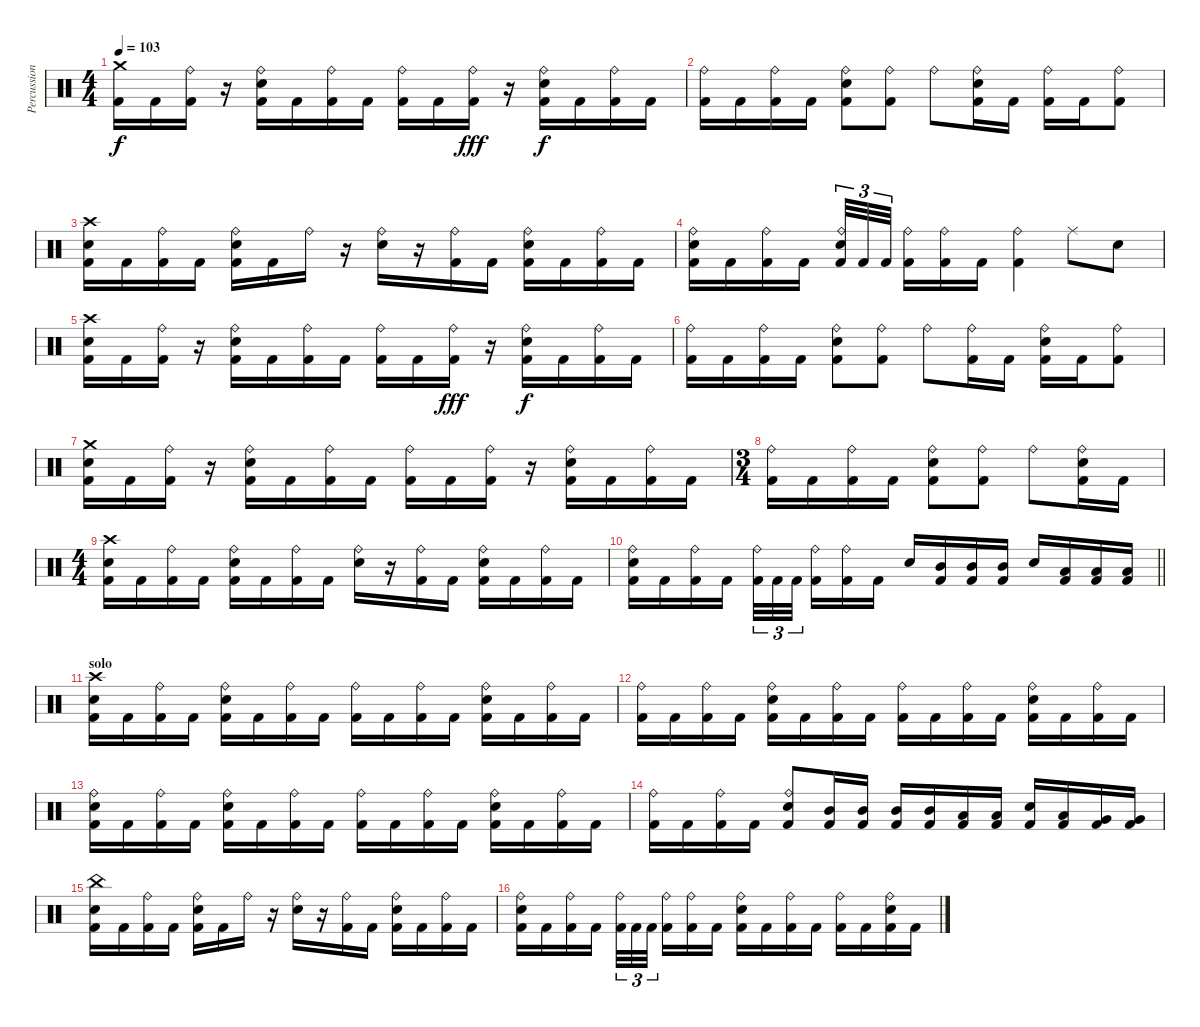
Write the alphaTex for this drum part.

\track ("Percussion" "Percussion") {instrument percussion}
\staff {score}
\articulation defaults
\ts (4 4)
\tempo 103
\clef neutral
\ks c
("Crash medium (hit)" "Kick (hit) 2").16{dy f} "Kick (hit) 2".16 ("Ride (bell)" "Kick (hit) 2").16 r.16 ("Ride (bell)" "Electric Snare (hit)" "Kick (hit) 2").16 "Kick (hit) 2".16 ("Ride (bell)" "Kick (hit) 2").16 "Kick (hit) 2".16 ("Ride (bell)" "Kick (hit) 2").16 "Kick (hit) 2".16 ("Ride (bell)" "Kick (hit) 2").16{dy fff} r.16 ("Ride (bell)" "Electric Snare (hit)" "Kick (hit) 2").16{dy f} "Kick (hit) 2".16 ("Ride (bell)" "Kick (hit) 2").16 "Kick (hit) 2".16 |
("Ride (bell)" "Kick (hit) 2").16 "Kick (hit) 2".16 ("Ride (bell)" "Kick (hit) 2").16 "Kick (hit) 2".16 ("Ride (bell)" "Electric Snare (hit)" "Kick (hit) 2").8 ("Ride (bell)" "Kick (hit) 2").8 "Ride (bell)".8 ("Ride (bell)" "Electric Snare (hit)" "Kick (hit) 2").16 "Kick (hit) 2".16 ("Ride (bell)" "Kick (hit) 2").16 "Kick (hit) 2".16 ("Ride (bell)" "Kick (hit) 2").8 |
("Crash high (hit)" "Electric Snare (hit)" "Kick (hit) 2").16 "Kick (hit) 2".16 ("Ride (bell)" "Kick (hit) 2").16 "Kick (hit) 2".16 ("Ride (bell)" "Electric Snare (hit)" "Kick (hit) 2").16 "Kick (hit) 2".16 "Ride (bell)".16 r.16 ("Ride (bell)" "Electric Snare (hit)").16 r.16 ("Ride (bell)" "Kick (hit) 2").16 "Kick (hit) 2".16 ("Ride (bell)" "Electric Snare (hit)" "Kick (hit) 2").16 "Kick (hit) 2".16 ("Ride (bell)" "Kick (hit) 2").16 "Kick (hit) 2".16 |
("Ride (bell)" "Electric Snare (hit)" "Kick (hit) 2").16 "Kick (hit) 2".16 ("Ride (bell)" "Kick (hit) 2").16 "Kick (hit) 2".16 ("Ride (bell)" "Electric Snare (hit)" "Kick (hit) 2").32{tu (3 2)} "Kick (hit) 2".32{tu (3 2)} "Kick (hit) 2".32{tu (3 2)} ("Ride (bell)" "Kick (hit) 2").16 ("Ride (bell)" "Kick (hit) 2").16 "Kick (hit) 2".16 ("Ride (bell)" "Kick (hit) 2").4 "Ride (middle)".8 "Electric Snare (hit)".8 |
("Crash high (hit)" "Electric Snare (hit)" "Kick (hit) 2").16 "Kick (hit) 2".16 ("Ride (bell)" "Kick (hit) 2").16 r.16 ("Ride (bell)" "Electric Snare (hit)" "Kick (hit) 2").16 "Kick (hit) 2".16 ("Ride (bell)" "Kick (hit) 2").16 "Kick (hit) 2".16 ("Ride (bell)" "Kick (hit) 2").16 "Kick (hit) 2".16 ("Ride (bell)" "Kick (hit) 2").16{dy fff} r.16 ("Ride (bell)" "Electric Snare (hit)" "Kick (hit) 2").16{dy f} "Kick (hit) 2".16 ("Ride (bell)" "Kick (hit) 2").16 "Kick (hit) 2".16 |
("Ride (bell)" "Kick (hit) 2").16 "Kick (hit) 2".16 ("Ride (bell)" "Kick (hit) 2").16 "Kick (hit) 2".16 ("Ride (bell)" "Electric Snare (hit)" "Kick (hit) 2").8 ("Ride (bell)" "Kick (hit) 2").8 "Ride (bell)".8 ("Ride (bell)" "Kick (hit) 2").16 "Kick (hit) 2".16 ("Ride (bell)" "Electric Snare (hit)" "Kick (hit) 2").16 "Kick (hit) 2".16 ("Ride (bell)" "Kick (hit) 2").8 |
("Crash medium (hit)" "Electric Snare (hit)" "Kick (hit) 2").16 "Kick (hit) 2".16 ("Ride (bell)" "Kick (hit) 2").16 r.16 ("Ride (bell)" "Electric Snare (hit)" "Kick (hit) 2").16 "Kick (hit) 2".16 ("Ride (bell)" "Kick (hit) 2").16 "Kick (hit) 2".16 ("Ride (bell)" "Kick (hit) 2").16 "Kick (hit) 2".16 ("Ride (bell)" "Kick (hit) 2").16 r.16 ("Ride (bell)" "Electric Snare (hit)" "Kick (hit) 2").16 "Kick (hit) 2".16 ("Ride (bell)" "Kick (hit) 2").16 "Kick (hit) 2".16 |
\ts (3 4)
("Ride (bell)" "Kick (hit) 2").16 "Kick (hit) 2".16 ("Ride (bell)" "Kick (hit) 2").16 "Kick (hit) 2".16 ("Ride (bell)" "Electric Snare (hit)" "Kick (hit) 2").8 ("Ride (bell)" "Kick (hit) 2").8 "Ride (bell)".8 ("Ride (bell)" "Electric Snare (hit)" "Kick (hit) 2").16 "Kick (hit) 2".16 |
\ts (4 4)
("Crash high (hit)" "Electric Snare (hit)" "Kick (hit) 2").16 "Kick (hit) 2".16 ("Ride (bell)" "Kick (hit) 2").16 "Kick (hit) 2".16 ("Ride (bell)" "Electric Snare (hit)" "Kick (hit) 2").16 "Kick (hit) 2".16 ("Ride (bell)" "Kick (hit) 2").16 "Kick (hit) 2".16 ("Ride (bell)" "Electric Snare (hit)").16 r.16 ("Ride (bell)" "Kick (hit) 2").16 "Kick (hit) 2".16 ("Ride (bell)" "Electric Snare (hit)" "Kick (hit) 2").16 "Kick (hit) 2".16 ("Ride (bell)" "Kick (hit) 2").16 "Kick (hit) 2".16 |
\barLineRight lightlight
("Ride (bell)" "Electric Snare (hit)" "Kick (hit) 2").16 "Kick (hit) 2".16 ("Ride (bell)" "Kick (hit) 2").16 "Kick (hit) 2".16 ("Ride (bell)" "Kick (hit) 2").32{tu (3 2)} "Kick (hit) 2".32{tu (3 2)} "Kick (hit) 2".32{tu (3 2)} ("Ride (bell)" "Kick (hit) 2").16 ("Ride (bell)" "Kick (hit) 2").16 "Kick (hit) 2".16 "Electric Snare (hit)".16 ("Mid Tom (hit)" "Kick (hit) 2").16 ("Mid Tom (hit)" "Kick (hit) 2").16 ("Mid Tom (hit)" "Kick (hit) 2").16 "Electric Snare (hit)".16 ("Low Tom (hit)" "Kick (hit) 2").16 ("Low Tom (hit)" "Kick (hit) 2").16 ("Low Tom (hit)" "Kick (hit) 2").16 |
\section ("" "solo")
("Crash high (hit)" "Electric Snare (hit)" "Kick (hit) 2").16 "Kick (hit) 2".16 ("Ride (bell)" "Kick (hit) 2").16 "Kick (hit) 2".16 ("Ride (bell)" "Electric Snare (hit)" "Kick (hit) 2").16 "Kick (hit) 2".16 ("Ride (bell)" "Kick (hit) 2").16 "Kick (hit) 2".16 ("Ride (bell)" "Kick (hit) 2").16 "Kick (hit) 2".16 ("Ride (bell)" "Kick (hit) 2").16 "Kick (hit) 2".16 ("Ride (bell)" "Electric Snare (hit)" "Kick (hit) 2").16 "Kick (hit) 2".16 ("Ride (bell)" "Kick (hit) 2").16 "Kick (hit) 2".16 |
("Ride (bell)" "Kick (hit) 2").16 "Kick (hit) 2".16 ("Ride (bell)" "Kick (hit) 2").16 "Kick (hit) 2".16 ("Ride (bell)" "Electric Snare (hit)" "Kick (hit) 2").16 "Kick (hit) 2".16 ("Ride (bell)" "Kick (hit) 2").16 "Kick (hit) 2".16 ("Ride (bell)" "Kick (hit) 2").16 "Kick (hit) 2".16 ("Ride (bell)" "Kick (hit) 2").16 "Kick (hit) 2".16 ("Ride (bell)" "Electric Snare (hit)" "Kick (hit) 2").16 "Kick (hit) 2".16 ("Ride (bell)" "Kick (hit) 2").16 "Kick (hit) 2".16 |
("Ride (bell)" "Electric Snare (hit)" "Kick (hit) 2").16 "Kick (hit) 2".16 ("Ride (bell)" "Kick (hit) 2").16 "Kick (hit) 2".16 ("Ride (bell)" "Electric Snare (hit)" "Kick (hit) 2").16 "Kick (hit) 2".16 ("Ride (bell)" "Kick (hit) 2").16 "Kick (hit) 2".16 ("Ride (bell)" "Kick (hit) 2").16 "Kick (hit) 2".16 ("Ride (bell)" "Kick (hit) 2").16 "Kick (hit) 2".16 ("Ride (bell)" "Electric Snare (hit)" "Kick (hit) 2").16 "Kick (hit) 2".16 ("Ride (bell)" "Kick (hit) 2").16 "Kick (hit) 2".16 |
("Ride (bell)" "Kick (hit) 2").16 "Kick (hit) 2".16 ("Ride (bell)" "Kick (hit) 2").16 "Kick (hit) 2".16 ("Ride (bell)" "Electric Snare (hit)" "Kick (hit) 2").8 ("Mid Tom (hit)" "Kick (hit) 2").16 ("Mid Tom (hit)" "Kick (hit) 2").16 ("Mid Tom (hit)" "Kick (hit) 2").16 ("Mid Tom (hit)" "Kick (hit) 2").16 ("Low Tom (hit)" "Kick (hit) 2").16 ("Low Tom (hit)" "Kick (hit) 2").16 ("Electric Snare (hit)" "Kick (hit) 2").16 ("Low Tom (hit)" "Kick (hit) 2").16 ("Very Low Tom (hit)" "Kick (hit) 2").16 ("Very Low Tom (hit)" "Kick (hit) 2").16 |
("China (hit)" "Electric Snare (hit)" "Kick (hit) 2").16 "Kick (hit) 2".16 ("Ride (bell)" "Kick (hit) 2").16 "Kick (hit) 2".16 ("Ride (bell)" "Electric Snare (hit)" "Kick (hit) 2").16 "Kick (hit) 2".16 "Ride (bell)".16 r.16 ("Ride (bell)" "Electric Snare (hit)").16 r.16 ("Ride (bell)" "Kick (hit) 2").16 "Kick (hit) 2".16 ("Ride (bell)" "Electric Snare (hit)" "Kick (hit) 2").16 "Kick (hit) 2".16 ("Ride (bell)" "Kick (hit) 2").16 "Kick (hit) 2".16 |
("Ride (bell)" "Electric Snare (hit)" "Kick (hit) 2").16 "Kick (hit) 2".16 ("Ride (bell)" "Kick (hit) 2").16 "Kick (hit) 2".16 ("Ride (bell)" "Kick (hit) 2").32{tu (3 2)} "Kick (hit) 2".32{tu (3 2)} "Kick (hit) 2".32{tu (3 2)} ("Ride (bell)" "Kick (hit) 2").16 ("Ride (bell)" "Kick (hit) 2").16 "Kick (hit) 2".16 ("Ride (bell)" "Electric Snare (hit)" "Kick (hit) 2").16 "Kick (hit) 2".16 ("Ride (bell)" "Kick (hit) 2").16 "Kick (hit) 2".16 ("Ride (bell)" "Kick (hit) 2").16 "Kick (hit) 2".16 ("Ride (bell)" "Electric Snare (hit)" "Kick (hit) 2").16 "Kick (hit) 2".16
